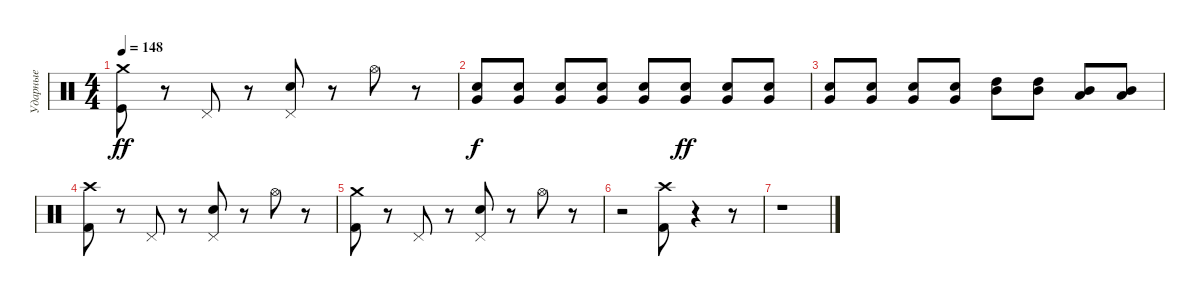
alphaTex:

\track ("Ударные" "Ударные") {instrument percussion}
\staff {score}
\articulation defaults
\ts (4 4)
\tempo 148
\clef neutral
\ks c
("Crash medium (hit)" "Kick (hit)").8{dy ff} r.8 "Pedal Hi-Hat (hit)".8 r.8 ("Pedal Hi-Hat (hit)" "Snare (hit) 2").8 r.8 "Hi-Hat (open)".8 r.8 |
("Very Low Tom (hit)" "Snare (hit) 2").8{dy f} ("Very Low Tom (hit)" "Snare (hit) 2").8 ("Very Low Tom (hit)" "Snare (hit) 2").8 ("Very Low Tom (hit)" "Snare (hit) 2").8 ("Very Low Tom (hit)" "Snare (hit) 2").8 ("Very Low Tom (hit)" "Snare (hit) 2").8{dy ff} ("Very Low Tom (hit)" "Snare (hit) 2").8 ("Very Low Tom (hit)" "Snare (hit) 2").8 |
("Very Low Tom (hit)" "Snare (hit) 2").8 ("Very Low Tom (hit)" "Snare (hit) 2").8 ("Very Low Tom (hit)" "Snare (hit) 2").8 ("Very Low Tom (hit)" "Snare (hit) 2").8 ("Mid Tom (hit)" "High Tom (hit)").8 ("Mid Tom (hit)" "High Tom (hit)").8 ("Low Tom (hit)" "Mid Tom (hit)").8 ("Low Tom (hit)" "Mid Tom (hit)").8 |
("Crash high (hit)" "Kick (hit) 2").8 r.8 "Pedal Hi-Hat (hit)".8 r.8 ("Pedal Hi-Hat (hit)" "Snare (hit) 2").8 r.8 "Hi-Hat (open)".8 r.8 |
("Crash medium (hit)" "Kick (hit) 2").8 r.8 "Pedal Hi-Hat (hit)".8 r.8 ("Snare (hit) 2" "Pedal Hi-Hat (hit)").8 r.8 "Hi-Hat (open)".8 r.8 |
r.2 ("Crash high (hit)" "Kick (hit) 2").8 r.4 r.8 |
r.1
